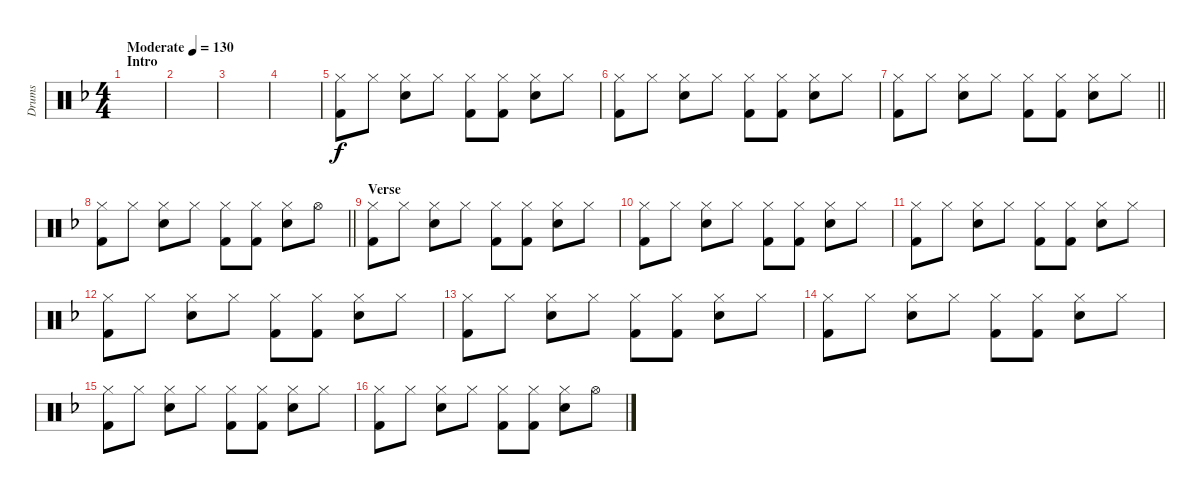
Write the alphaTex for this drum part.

\track ("Drums" "Drums") {instrument percussion}
\staff {score}
\articulation defaults
\ts (4 4)
\section ("" "Intro")
\tempo (130 "Moderate")
\clef neutral
\ks f
|
|
|
|
("Hi-Hat (closed)" "Kick (hit) 2").8 "Hi-Hat (closed)".8 ("Hi-Hat (closed)" "Snare (hit) 2").8 "Hi-Hat (closed)".8 ("Hi-Hat (closed)" "Kick (hit) 2").8 ("Hi-Hat (closed)" "Kick (hit) 2").8 ("Hi-Hat (closed)" "Snare (hit) 2").8 "Hi-Hat (closed)".8 |
("Hi-Hat (closed)" "Kick (hit) 2").8 "Hi-Hat (closed)".8 ("Hi-Hat (closed)" "Snare (hit) 2").8 "Hi-Hat (closed)".8 ("Hi-Hat (closed)" "Kick (hit) 2").8 ("Hi-Hat (closed)" "Kick (hit) 2").8 ("Hi-Hat (closed)" "Snare (hit) 2").8 "Hi-Hat (closed)".8 |
\barLineRight lightlight
("Hi-Hat (closed)" "Kick (hit) 2").8 "Hi-Hat (closed)".8 ("Hi-Hat (closed)" "Snare (hit) 2").8 "Hi-Hat (closed)".8 ("Hi-Hat (closed)" "Kick (hit) 2").8 ("Hi-Hat (closed)" "Kick (hit) 2").8 ("Hi-Hat (closed)" "Snare (hit) 2").8 "Hi-Hat (closed)".8 |
\section ("" "")
\barLineRight lightlight
("Hi-Hat (closed)" "Kick (hit) 2").8 "Hi-Hat (closed)".8 ("Hi-Hat (closed)" "Snare (hit) 2").8 "Hi-Hat (closed)".8 ("Hi-Hat (closed)" "Kick (hit) 2").8 ("Hi-Hat (closed)" "Kick (hit) 2").8 ("Hi-Hat (closed)" "Snare (hit) 2").8 "Hi-Hat (open)".8 |
\section ("" "Verse")
("Hi-Hat (closed)" "Kick (hit) 2").8 "Hi-Hat (closed)".8 ("Hi-Hat (closed)" "Snare (hit) 2").8 "Hi-Hat (closed)".8 ("Hi-Hat (closed)" "Kick (hit) 2").8 ("Hi-Hat (closed)" "Kick (hit) 2").8 ("Hi-Hat (closed)" "Snare (hit) 2").8 "Hi-Hat (closed)".8 |
("Hi-Hat (closed)" "Kick (hit) 2").8 "Hi-Hat (closed)".8 ("Hi-Hat (closed)" "Snare (hit) 2").8 "Hi-Hat (closed)".8 ("Hi-Hat (closed)" "Kick (hit) 2").8 ("Hi-Hat (closed)" "Kick (hit) 2").8 ("Hi-Hat (closed)" "Snare (hit) 2").8 "Hi-Hat (closed)".8 |
("Hi-Hat (closed)" "Kick (hit) 2").8 "Hi-Hat (closed)".8 ("Hi-Hat (closed)" "Snare (hit) 2").8 "Hi-Hat (closed)".8 ("Hi-Hat (closed)" "Kick (hit) 2").8 ("Hi-Hat (closed)" "Kick (hit) 2").8 ("Hi-Hat (closed)" "Snare (hit) 2").8 "Hi-Hat (closed)".8 |
("Hi-Hat (closed)" "Kick (hit) 2").8 "Hi-Hat (closed)".8 ("Hi-Hat (closed)" "Snare (hit) 2").8 "Hi-Hat (closed)".8 ("Hi-Hat (closed)" "Kick (hit) 2").8 ("Hi-Hat (closed)" "Kick (hit) 2").8 ("Hi-Hat (closed)" "Snare (hit) 2").8 "Hi-Hat (closed)".8 |
("Hi-Hat (closed)" "Kick (hit) 2").8 "Hi-Hat (closed)".8 ("Hi-Hat (closed)" "Snare (hit) 2").8 "Hi-Hat (closed)".8 ("Hi-Hat (closed)" "Kick (hit) 2").8 ("Hi-Hat (closed)" "Kick (hit) 2").8 ("Hi-Hat (closed)" "Snare (hit) 2").8 "Hi-Hat (closed)".8 |
("Hi-Hat (closed)" "Kick (hit) 2").8 "Hi-Hat (closed)".8 ("Hi-Hat (closed)" "Snare (hit) 2").8 "Hi-Hat (closed)".8 ("Hi-Hat (closed)" "Kick (hit) 2").8 ("Hi-Hat (closed)" "Kick (hit) 2").8 ("Hi-Hat (closed)" "Snare (hit) 2").8 "Hi-Hat (closed)".8 |
("Hi-Hat (closed)" "Kick (hit) 2").8 "Hi-Hat (closed)".8 ("Hi-Hat (closed)" "Snare (hit) 2").8 "Hi-Hat (closed)".8 ("Hi-Hat (closed)" "Kick (hit) 2").8 ("Hi-Hat (closed)" "Kick (hit) 2").8 ("Hi-Hat (closed)" "Snare (hit) 2").8 "Hi-Hat (closed)".8 |
("Hi-Hat (closed)" "Kick (hit) 2").8 "Hi-Hat (closed)".8 ("Hi-Hat (closed)" "Snare (hit) 2").8 "Hi-Hat (closed)".8 ("Hi-Hat (closed)" "Kick (hit) 2").8 ("Hi-Hat (closed)" "Kick (hit) 2").8 ("Hi-Hat (closed)" "Snare (hit) 2").8 "Hi-Hat (open)".8
